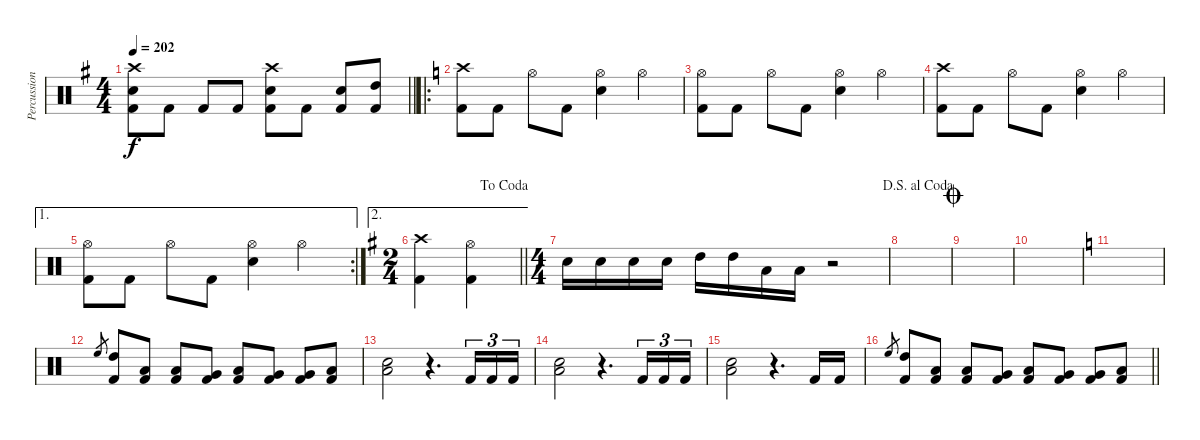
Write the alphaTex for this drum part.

\track ("Percussion" "Percussion") {instrument percussion}
\staff {score}
\articulation defaults
\ts (4 4)
\tempo 202
\clef neutral
\barLineRight lightlight
\ks g
("Crash high (hit)" "Electric Snare (hit)" "Kick (hit) 2").8{dy f} "Kick (hit) 2".8 "Kick (hit) 2".8 "Kick (hit) 2".8 ("Crash high (hit)" "Electric Snare (hit)" "Kick (hit) 2").8 "Kick (hit) 2".8 ("Electric Snare (hit)" "Kick (hit) 2").8 ("High Tom (hit)" "Kick (hit) 2").8 |
\ro
\ks c
("Crash high (hit)" "Kick (hit) 2").8 "Kick (hit) 2".8 "Hi-Hat (open)".8 "Kick (hit) 2".8 ("Hi-Hat (open)" "Electric Snare (hit)").4 "Hi-Hat (open)".4 |
("Hi-Hat (open)" "Kick (hit) 2").8 "Kick (hit) 2".8 "Hi-Hat (open)".8 "Kick (hit) 2".8 ("Hi-Hat (open)" "Electric Snare (hit)").4 "Hi-Hat (open)".4 |
("Crash high (hit)" "Kick (hit) 2").8 "Kick (hit) 2".8 "Hi-Hat (open)".8 "Kick (hit) 2".8 ("Hi-Hat (open)" "Electric Snare (hit)").4 "Hi-Hat (open)".4 |
\ae 1
\rc 2
("Hi-Hat (open)" "Kick (hit) 2").8 "Kick (hit) 2".8 "Hi-Hat (open)".8 "Kick (hit) 2".8 ("Hi-Hat (open)" "Electric Snare (hit)").4 "Hi-Hat (open)".4 |
\ae 2
\ts (2 4)
\jump dacoda
\barLineRight lightlight
\ks g
("Crash high (hit)" "Kick (hit) 2").4 ("Hi-Hat (open)" "Kick (hit) 2").4 |
\ts (4 4)
"Electric Snare (hit)".16 "Electric Snare (hit)".16 "Electric Snare (hit)".16 "Electric Snare (hit)".16 "High Tom (hit)".16 "High Tom (hit)".16 "Low Tom (hit)".16 "Low Tom (hit)".16 r.2 |
\jump dalsegnoalcoda
|
\jump coda
|
|
\ks c
|
"High Floor Tom (hit)".8{gr} ("High Tom (hit)" "Kick (hit) 2").8 ("Low Tom (hit)" "Kick (hit) 2").8 ("Low Tom (hit)" "Kick (hit) 2").8 ("Very Low Tom (hit)" "Kick (hit) 2").8 ("Low Tom (hit)" "Kick (hit) 2").8 ("Very Low Tom (hit)" "Kick (hit) 2").8 ("Very Low Tom (hit)" "Kick (hit) 2").8 ("Low Floor Tom (hit)" "Kick (hit) 2").8 |
("Electric Snare (hit)" "Low Floor Tom (hit)").2 r.4{d} "Kick (hit) 2".16{tu (3 2)} "Kick (hit) 2".16{tu (3 2)} "Kick (hit) 2".16{tu (3 2)} |
("Electric Snare (hit)" "Low Floor Tom (hit)").2 r.4{d} "Kick (hit) 2".16{tu (3 2)} "Kick (hit) 2".16{tu (3 2)} "Kick (hit) 2".16{tu (3 2)} |
("Electric Snare (hit)" "Low Floor Tom (hit)").2 r.4{d} "Kick (hit) 2".16 "Kick (hit) 2".16 |
\barLineRight lightlight "High Floor Tom (hit)".8{gr}
("High Tom (hit)" "Kick (hit) 2").8 ("Low Tom (hit)" "Kick (hit) 2").8 ("Low Tom (hit)" "Kick (hit) 2").8 ("Very Low Tom (hit)" "Kick (hit) 2").8 ("Low Tom (hit)" "Kick (hit) 2").8 ("Very Low Tom (hit)" "Kick (hit) 2").8 ("Very Low Tom (hit)" "Kick (hit) 2").8 ("Low Floor Tom (hit)" "Kick (hit) 2").8
